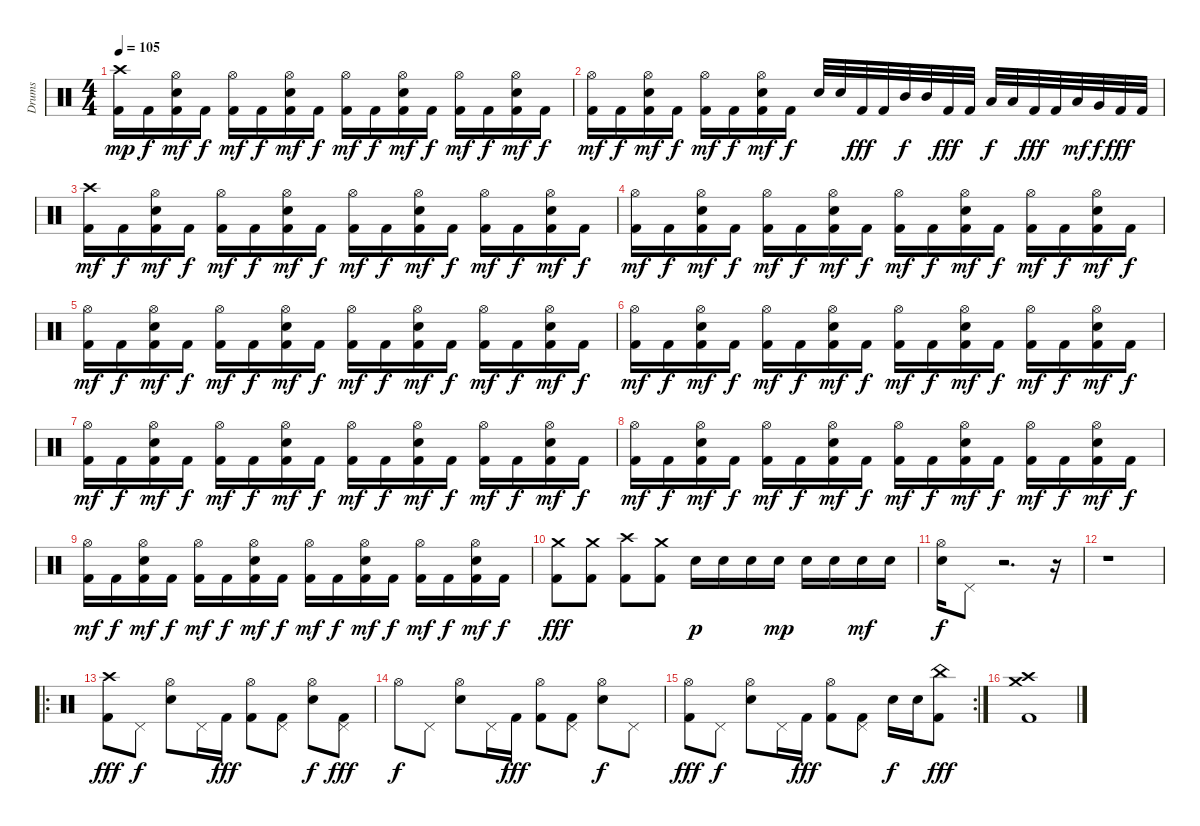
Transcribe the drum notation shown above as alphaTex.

\track ("Drums" "Drums") {instrument percussion}
\staff {score}
\articulation defaults
\ts (4 4)
\tempo 105
\clef neutral
\ks c
("Crash high (hit)" "Kick (hit) 2").16{dy mp} "Kick (hit) 2".16{dy f} ("Hi-Hat (open)" "Electric Snare (hit)" "Kick (hit) 2").16{dy mf} "Kick (hit) 2".16{dy f} ("Hi-Hat (open)" "Kick (hit) 2").16{dy mf} "Kick (hit) 2".16{dy f} ("Hi-Hat (open)" "Electric Snare (hit)" "Kick (hit) 2").16{dy mf} "Kick (hit) 2".16{dy f} ("Hi-Hat (open)" "Kick (hit) 2").16{dy mf} "Kick (hit) 2".16{dy f} ("Hi-Hat (open)" "Electric Snare (hit)" "Kick (hit) 2").16{dy mf} "Kick (hit) 2".16{dy f} ("Hi-Hat (open)" "Kick (hit) 2").16{dy mf} "Kick (hit) 2".16{dy f} ("Hi-Hat (open)" "Electric Snare (hit)" "Kick (hit) 2").16{dy mf} "Kick (hit) 2".16{dy f} |
("Hi-Hat (open)" "Kick (hit) 2").16{dy mf} "Kick (hit) 2".16{dy f} ("Hi-Hat (open)" "Electric Snare (hit)" "Kick (hit) 2").16{dy mf} "Kick (hit) 2".16{dy f} ("Hi-Hat (open)" "Kick (hit) 2").16{dy mf} "Kick (hit) 2".16{dy f} ("Hi-Hat (open)" "Electric Snare (hit)" "Kick (hit) 2").16{dy mf} "Kick (hit) 2".16{dy f} "Electric Snare (hit)".32 "Electric Snare (hit)".32 "Kick (hit) 2".32{dy fff} "Kick (hit) 2".32 "Mid Tom (hit)".32{dy f} "Mid Tom (hit)".32 "Kick (hit) 2".32{dy fff} "Kick (hit) 2".32 "Low Tom (hit)".32{dy f} "Low Tom (hit)".32 "Kick (hit) 2".32{dy fff} "Kick (hit) 2".32 "Low Tom (hit)".32{dy mf} "Very Low Tom (hit)".32{dy f} "Kick (hit) 2".32{dy fff} "Kick (hit) 2".32 |
("Crash high (hit)" "Kick (hit) 2").16{dy mf} "Kick (hit) 2".16{dy f} ("Hi-Hat (open)" "Electric Snare (hit)" "Kick (hit) 2").16{dy mf} "Kick (hit) 2".16{dy f} ("Hi-Hat (open)" "Kick (hit) 2").16{dy mf} "Kick (hit) 2".16{dy f} ("Hi-Hat (open)" "Electric Snare (hit)" "Kick (hit) 2").16{dy mf} "Kick (hit) 2".16{dy f} ("Hi-Hat (open)" "Kick (hit) 2").16{dy mf} "Kick (hit) 2".16{dy f} ("Hi-Hat (open)" "Electric Snare (hit)" "Kick (hit) 2").16{dy mf} "Kick (hit) 2".16{dy f} ("Hi-Hat (open)" "Kick (hit) 2").16{dy mf} "Kick (hit) 2".16{dy f} ("Hi-Hat (open)" "Electric Snare (hit)" "Kick (hit) 2").16{dy mf} "Kick (hit) 2".16{dy f} |
("Hi-Hat (open)" "Kick (hit) 2").16{dy mf} "Kick (hit) 2".16{dy f} ("Hi-Hat (open)" "Electric Snare (hit)" "Kick (hit) 2").16{dy mf} "Kick (hit) 2".16{dy f} ("Hi-Hat (open)" "Kick (hit) 2").16{dy mf} "Kick (hit) 2".16{dy f} ("Hi-Hat (open)" "Electric Snare (hit)" "Kick (hit) 2").16{dy mf} "Kick (hit) 2".16{dy f} ("Hi-Hat (open)" "Kick (hit) 2").16{dy mf} "Kick (hit) 2".16{dy f} ("Hi-Hat (open)" "Electric Snare (hit)" "Kick (hit) 2").16{dy mf} "Kick (hit) 2".16{dy f} ("Hi-Hat (open)" "Kick (hit) 2").16{dy mf} "Kick (hit) 2".16{dy f} ("Hi-Hat (open)" "Electric Snare (hit)" "Kick (hit) 2").16{dy mf} "Kick (hit) 2".16{dy f} |
("Hi-Hat (open)" "Kick (hit) 2").16{dy mf} "Kick (hit) 2".16{dy f} ("Hi-Hat (open)" "Electric Snare (hit)" "Kick (hit) 2").16{dy mf} "Kick (hit) 2".16{dy f} ("Hi-Hat (open)" "Kick (hit) 2").16{dy mf} "Kick (hit) 2".16{dy f} ("Hi-Hat (open)" "Electric Snare (hit)" "Kick (hit) 2").16{dy mf} "Kick (hit) 2".16{dy f} ("Hi-Hat (open)" "Kick (hit) 2").16{dy mf} "Kick (hit) 2".16{dy f} ("Hi-Hat (open)" "Electric Snare (hit)" "Kick (hit) 2").16{dy mf} "Kick (hit) 2".16{dy f} ("Hi-Hat (open)" "Kick (hit) 2").16{dy mf} "Kick (hit) 2".16{dy f} ("Hi-Hat (open)" "Electric Snare (hit)" "Kick (hit) 2").16{dy mf} "Kick (hit) 2".16{dy f} |
("Hi-Hat (open)" "Kick (hit) 2").16{dy mf} "Kick (hit) 2".16{dy f} ("Hi-Hat (open)" "Electric Snare (hit)" "Kick (hit) 2").16{dy mf} "Kick (hit) 2".16{dy f} ("Hi-Hat (open)" "Kick (hit) 2").16{dy mf} "Kick (hit) 2".16{dy f} ("Hi-Hat (open)" "Electric Snare (hit)" "Kick (hit) 2").16{dy mf} "Kick (hit) 2".16{dy f} ("Hi-Hat (open)" "Kick (hit) 2").16{dy mf} "Kick (hit) 2".16{dy f} ("Hi-Hat (open)" "Electric Snare (hit)" "Kick (hit) 2").16{dy mf} "Kick (hit) 2".16{dy f} ("Hi-Hat (open)" "Kick (hit) 2").16{dy mf} "Kick (hit) 2".16{dy f} ("Hi-Hat (open)" "Electric Snare (hit)" "Kick (hit) 2").16{dy mf} "Kick (hit) 2".16{dy f} |
("Hi-Hat (open)" "Kick (hit) 2").16{dy mf} "Kick (hit) 2".16{dy f} ("Hi-Hat (open)" "Electric Snare (hit)" "Kick (hit) 2").16{dy mf} "Kick (hit) 2".16{dy f} ("Hi-Hat (open)" "Kick (hit) 2").16{dy mf} "Kick (hit) 2".16{dy f} ("Hi-Hat (open)" "Electric Snare (hit)" "Kick (hit) 2").16{dy mf} "Kick (hit) 2".16{dy f} ("Hi-Hat (open)" "Kick (hit) 2").16{dy mf} "Kick (hit) 2".16{dy f} ("Hi-Hat (open)" "Electric Snare (hit)" "Kick (hit) 2").16{dy mf} "Kick (hit) 2".16{dy f} ("Hi-Hat (open)" "Kick (hit) 2").16{dy mf} "Kick (hit) 2".16{dy f} ("Hi-Hat (open)" "Electric Snare (hit)" "Kick (hit) 2").16{dy mf} "Kick (hit) 2".16{dy f} |
("Hi-Hat (open)" "Kick (hit) 2").16{dy mf} "Kick (hit) 2".16{dy f} ("Hi-Hat (open)" "Electric Snare (hit)" "Kick (hit) 2").16{dy mf} "Kick (hit) 2".16{dy f} ("Hi-Hat (open)" "Kick (hit) 2").16{dy mf} "Kick (hit) 2".16{dy f} ("Hi-Hat (open)" "Electric Snare (hit)" "Kick (hit) 2").16{dy mf} "Kick (hit) 2".16{dy f} ("Hi-Hat (open)" "Kick (hit) 2").16{dy mf} "Kick (hit) 2".16{dy f} ("Hi-Hat (open)" "Electric Snare (hit)" "Kick (hit) 2").16{dy mf} "Kick (hit) 2".16{dy f} ("Hi-Hat (open)" "Kick (hit) 2").16{dy mf} "Kick (hit) 2".16{dy f} ("Hi-Hat (open)" "Electric Snare (hit)" "Kick (hit) 2").16{dy mf} "Kick (hit) 2".16{dy f} |
("Hi-Hat (open)" "Kick (hit) 2").16{dy mf} "Kick (hit) 2".16{dy f} ("Hi-Hat (open)" "Electric Snare (hit)" "Kick (hit) 2").16{dy mf} "Kick (hit) 2".16{dy f} ("Hi-Hat (open)" "Kick (hit) 2").16{dy mf} "Kick (hit) 2".16{dy f} ("Hi-Hat (open)" "Electric Snare (hit)" "Kick (hit) 2").16{dy mf} "Kick (hit) 2".16{dy f} ("Hi-Hat (open)" "Kick (hit) 2").16{dy mf} "Kick (hit) 2".16{dy f} ("Hi-Hat (open)" "Electric Snare (hit)" "Kick (hit) 2").16{dy mf} "Kick (hit) 2".16{dy f} ("Hi-Hat (open)" "Kick (hit) 2").16{dy mf} "Kick (hit) 2".16{dy f} ("Hi-Hat (open)" "Electric Snare (hit)" "Kick (hit) 2").16{dy mf} "Kick (hit) 2".16{dy f} |
("Crash medium (hit)" "Kick (hit) 2").8{dy fff} ("Crash medium (hit)" "Kick (hit) 2").8 ("Crash high (hit)" "Kick (hit) 2").8 ("Crash medium (hit)" "Kick (hit) 2").8 "Electric Snare (hit)".16{dy p} "Electric Snare (hit)".16 "Electric Snare (hit)".16 "Electric Snare (hit)".16{dy mp} "Electric Snare (hit)".16 "Electric Snare (hit)".16 "Electric Snare (hit)".16{dy mf} "Electric Snare (hit)".16 |
("Hi-Hat (open)" "Electric Snare (hit)").16{dy f} "Pedal Hi-Hat (hit)".8 r.2{d} r.16 |
r.1 |
\ro
("Crash high (hit)" "Kick (hit) 2").8{dy fff} "Pedal Hi-Hat (hit)".8{dy f} ("Hi-Hat (open)" "Electric Snare (hit)").8 "Pedal Hi-Hat (hit)".16 "Kick (hit) 2".16{dy fff} ("Hi-Hat (open)" "Kick (hit) 2").8 ("Pedal Hi-Hat (hit)" "Kick (hit) 2").8 ("Hi-Hat (open)" "Electric Snare (hit)").8{dy f} ("Pedal Hi-Hat (hit)" "Kick (hit) 2").8{dy fff} |
"Hi-Hat (open)".8{dy f} "Pedal Hi-Hat (hit)".8 ("Hi-Hat (open)" "Electric Snare (hit)").8 "Pedal Hi-Hat (hit)".16 "Kick (hit) 2".16{dy fff} ("Hi-Hat (open)" "Kick (hit) 2").8 ("Pedal Hi-Hat (hit)" "Kick (hit) 2").8 ("Hi-Hat (open)" "Electric Snare (hit)").8{dy f} "Pedal Hi-Hat (hit)".8 |
\rc 2
("Hi-Hat (open)" "Kick (hit) 2").8{dy fff} "Pedal Hi-Hat (hit)".8{dy f} ("Hi-Hat (open)" "Electric Snare (hit)").8 "Pedal Hi-Hat (hit)".16 "Kick (hit) 2".16{dy fff} ("Hi-Hat (open)" "Kick (hit) 2").8 ("Pedal Hi-Hat (hit)" "Kick (hit) 2").8 "Electric Snare (hit)".16{dy f} "Electric Snare (hit)".16 ("China (hit)" "Kick (hit) 2").8{dy fff} |
("Crash medium (hit)" "Crash high (hit)" "Kick (hit) 2").1
